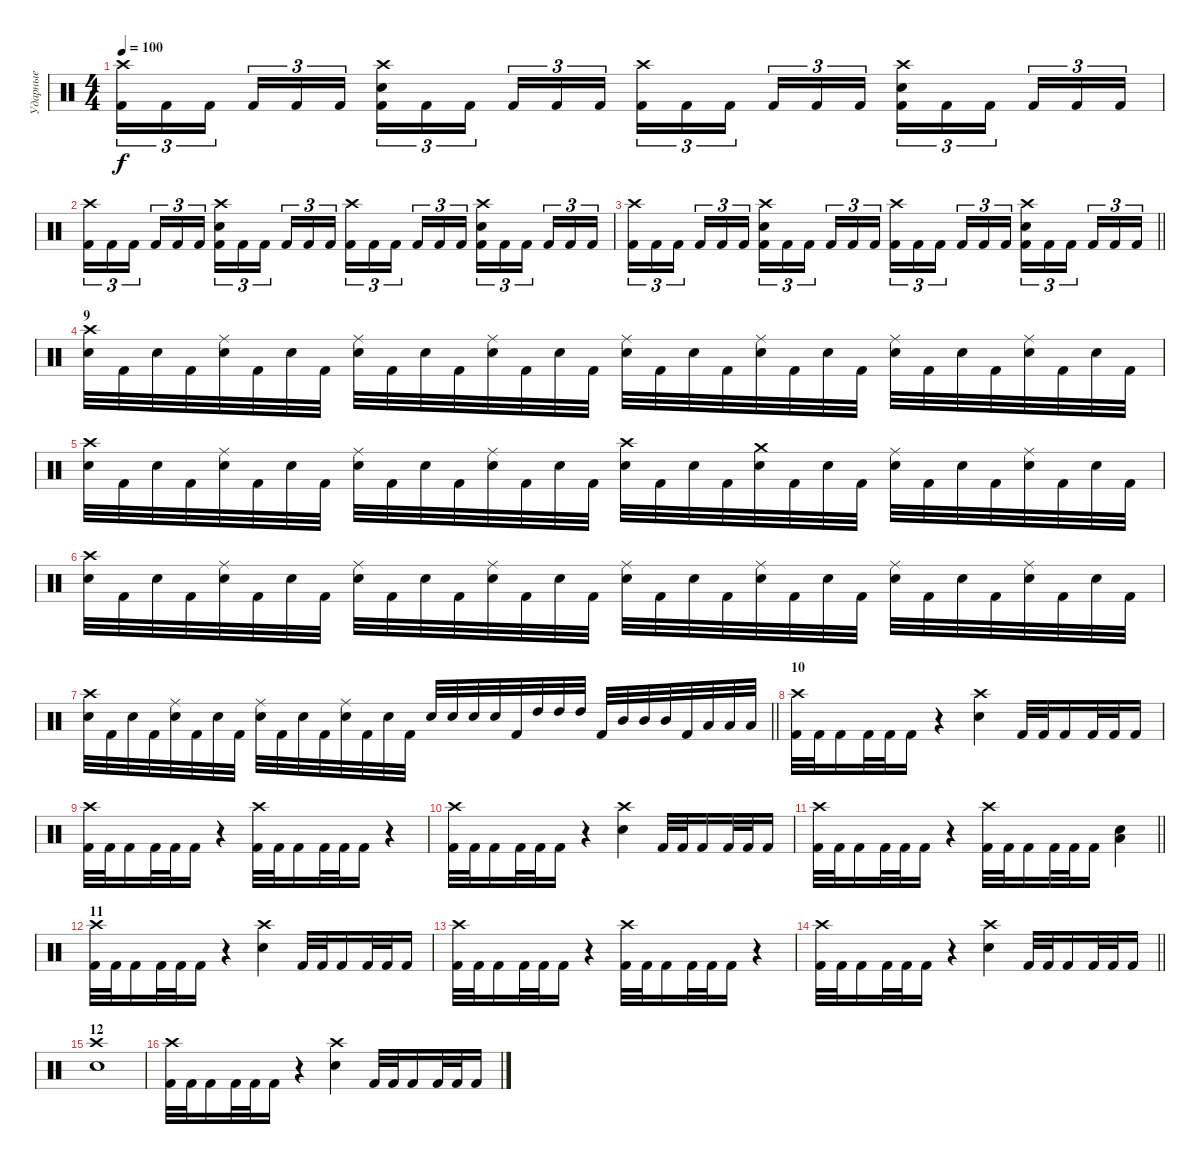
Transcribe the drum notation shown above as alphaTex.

\track ("Ударные" "Ударные") {instrument percussion}
\staff {score}
\articulation defaults
\ts (4 4)
\tempo 100
\clef neutral
\ks c
("Crash high (hit)" "Kick (hit) 2").16{tu (3 2) dy f} "Kick (hit) 2".16{tu (3 2)} "Kick (hit) 2".16{tu (3 2) beam splitsecondary} "Kick (hit) 2".16{tu (3 2)} "Kick (hit) 2".16{tu (3 2)} "Kick (hit) 2".16{tu (3 2)} ("Crash high (hit)" "Electric Snare (hit)" "Kick (hit) 2").16{tu (3 2)} "Kick (hit) 2".16{tu (3 2)} "Kick (hit) 2".16{tu (3 2) beam splitsecondary} "Kick (hit) 2".16{tu (3 2)} "Kick (hit) 2".16{tu (3 2)} "Kick (hit) 2".16{tu (3 2)} ("Crash high (hit)" "Kick (hit) 2").16{tu (3 2)} "Kick (hit) 2".16{tu (3 2)} "Kick (hit) 2".16{tu (3 2) beam splitsecondary} "Kick (hit) 2".16{tu (3 2)} "Kick (hit) 2".16{tu (3 2)} "Kick (hit) 2".16{tu (3 2)} ("Crash high (hit)" "Electric Snare (hit)" "Kick (hit) 2").16{tu (3 2)} "Kick (hit) 2".16{tu (3 2)} "Kick (hit) 2".16{tu (3 2) beam splitsecondary} "Kick (hit) 2".16{tu (3 2)} "Kick (hit) 2".16{tu (3 2)} "Kick (hit) 2".16{tu (3 2)} |
("Crash high (hit)" "Kick (hit) 2").16{tu (3 2)} "Kick (hit) 2".16{tu (3 2)} "Kick (hit) 2".16{tu (3 2) beam splitsecondary} "Kick (hit) 2".16{tu (3 2)} "Kick (hit) 2".16{tu (3 2)} "Kick (hit) 2".16{tu (3 2)} ("Crash high (hit)" "Electric Snare (hit)" "Kick (hit) 2").16{tu (3 2)} "Kick (hit) 2".16{tu (3 2)} "Kick (hit) 2".16{tu (3 2) beam splitsecondary} "Kick (hit) 2".16{tu (3 2)} "Kick (hit) 2".16{tu (3 2)} "Kick (hit) 2".16{tu (3 2)} ("Crash high (hit)" "Kick (hit) 2").16{tu (3 2)} "Kick (hit) 2".16{tu (3 2)} "Kick (hit) 2".16{tu (3 2) beam splitsecondary} "Kick (hit) 2".16{tu (3 2)} "Kick (hit) 2".16{tu (3 2)} "Kick (hit) 2".16{tu (3 2)} ("Crash high (hit)" "Electric Snare (hit)" "Kick (hit) 2").16{tu (3 2)} "Kick (hit) 2".16{tu (3 2)} "Kick (hit) 2".16{tu (3 2) beam splitsecondary} "Kick (hit) 2".16{tu (3 2)} "Kick (hit) 2".16{tu (3 2)} "Kick (hit) 2".16{tu (3 2)} |
\barLineRight lightlight
("Crash high (hit)" "Kick (hit) 2").16{tu (3 2)} "Kick (hit) 2".16{tu (3 2)} "Kick (hit) 2".16{tu (3 2) beam splitsecondary} "Kick (hit) 2".16{tu (3 2)} "Kick (hit) 2".16{tu (3 2)} "Kick (hit) 2".16{tu (3 2)} ("Crash high (hit)" "Electric Snare (hit)" "Kick (hit) 2").16{tu (3 2)} "Kick (hit) 2".16{tu (3 2)} "Kick (hit) 2".16{tu (3 2) beam splitsecondary} "Kick (hit) 2".16{tu (3 2)} "Kick (hit) 2".16{tu (3 2)} "Kick (hit) 2".16{tu (3 2)} ("Crash high (hit)" "Kick (hit) 2").16{tu (3 2)} "Kick (hit) 2".16{tu (3 2)} "Kick (hit) 2".16{tu (3 2) beam splitsecondary} "Kick (hit) 2".16{tu (3 2)} "Kick (hit) 2".16{tu (3 2)} "Kick (hit) 2".16{tu (3 2)} ("Crash high (hit)" "Electric Snare (hit)" "Kick (hit) 2").16{tu (3 2)} "Kick (hit) 2".16{tu (3 2)} "Kick (hit) 2".16{tu (3 2) beam splitsecondary} "Kick (hit) 2".16{tu (3 2)} "Kick (hit) 2".16{tu (3 2)} "Kick (hit) 2".16{tu (3 2)} |
\section ("" "9")
("Crash high (hit)" "Electric Snare (hit)").32 "Kick (hit) 2".32 "Electric Snare (hit)".32 "Kick (hit) 2".32 ("Ride (middle)" "Electric Snare (hit)").32 "Kick (hit) 2".32 "Electric Snare (hit)".32 "Kick (hit) 2".32 ("Ride (middle)" "Electric Snare (hit)").32 "Kick (hit) 2".32 "Electric Snare (hit)".32 "Kick (hit) 2".32 ("Ride (middle)" "Electric Snare (hit)").32 "Kick (hit) 2".32 "Electric Snare (hit)".32 "Kick (hit) 2".32 ("Ride (middle)" "Electric Snare (hit)").32 "Kick (hit) 2".32 "Electric Snare (hit)".32 "Kick (hit) 2".32 ("Ride (middle)" "Electric Snare (hit)").32 "Kick (hit) 2".32 "Electric Snare (hit)".32 "Kick (hit) 2".32 ("Ride (middle)" "Electric Snare (hit)").32 "Kick (hit) 2".32 "Electric Snare (hit)".32 "Kick (hit) 2".32 ("Ride (middle)" "Electric Snare (hit)").32 "Kick (hit) 2".32 "Electric Snare (hit)".32 "Kick (hit) 2".32 |
("Crash high (hit)" "Electric Snare (hit)").32 "Kick (hit) 2".32 "Electric Snare (hit)".32 "Kick (hit) 2".32 ("Ride (middle)" "Electric Snare (hit)").32 "Kick (hit) 2".32 "Electric Snare (hit)".32 "Kick (hit) 2".32 ("Ride (middle)" "Electric Snare (hit)").32 "Kick (hit) 2".32 "Electric Snare (hit)".32 "Kick (hit) 2".32 ("Ride (middle)" "Electric Snare (hit)").32 "Kick (hit) 2".32 "Electric Snare (hit)".32 "Kick (hit) 2".32 ("Crash high (hit)" "Electric Snare (hit)").32 "Kick (hit) 2".32 "Electric Snare (hit)".32 "Kick (hit) 2".32 ("Crash medium (hit)" "Electric Snare (hit)").32 "Kick (hit) 2".32 "Electric Snare (hit)".32 "Kick (hit) 2".32 ("Ride (middle)" "Electric Snare (hit)").32 "Kick (hit) 2".32 "Electric Snare (hit)".32 "Kick (hit) 2".32 ("Ride (middle)" "Electric Snare (hit)").32 "Kick (hit) 2".32 "Electric Snare (hit)".32 "Kick (hit) 2".32 |
("Crash high (hit)" "Electric Snare (hit)").32 "Kick (hit) 2".32 "Electric Snare (hit)".32 "Kick (hit) 2".32 ("Ride (middle)" "Electric Snare (hit)").32 "Kick (hit) 2".32 "Electric Snare (hit)".32 "Kick (hit) 2".32 ("Ride (middle)" "Electric Snare (hit)").32 "Kick (hit) 2".32 "Electric Snare (hit)".32 "Kick (hit) 2".32 ("Ride (middle)" "Electric Snare (hit)").32 "Kick (hit) 2".32 "Electric Snare (hit)".32 "Kick (hit) 2".32 ("Ride (middle)" "Electric Snare (hit)").32 "Kick (hit) 2".32 "Electric Snare (hit)".32 "Kick (hit) 2".32 ("Ride (middle)" "Electric Snare (hit)").32 "Kick (hit) 2".32 "Electric Snare (hit)".32 "Kick (hit) 2".32 ("Ride (middle)" "Electric Snare (hit)").32 "Kick (hit) 2".32 "Electric Snare (hit)".32 "Kick (hit) 2".32 ("Ride (middle)" "Electric Snare (hit)").32 "Kick (hit) 2".32 "Electric Snare (hit)".32 "Kick (hit) 2".32 |
\barLineRight lightlight
("Crash high (hit)" "Electric Snare (hit)").32 "Kick (hit) 2".32 "Electric Snare (hit)".32 "Kick (hit) 2".32 ("Ride (middle)" "Electric Snare (hit)").32 "Kick (hit) 2".32 "Electric Snare (hit)".32 "Kick (hit) 2".32 ("Ride (middle)" "Electric Snare (hit)").32 "Kick (hit) 2".32 "Electric Snare (hit)".32 "Kick (hit) 2".32 ("Ride (middle)" "Electric Snare (hit)").32 "Kick (hit) 2".32 "Electric Snare (hit)".32 "Kick (hit) 2".32 "Electric Snare (hit)".32 "Electric Snare (hit)".32 "Electric Snare (hit)".32 "Electric Snare (hit)".32 "Kick (hit) 2".32 "High Tom (hit)".32 "High Tom (hit)".32 "High Tom (hit)".32 "Kick (hit) 2".32 "Mid Tom (hit)".32 "Mid Tom (hit)".32 "Mid Tom (hit)".32 "Kick (hit) 2".32 "Low Tom (hit)".32 "Low Tom (hit)".32 "Low Tom (hit)".32 |
\section ("" "10")
("Crash high (hit)" "Kick (hit) 2").32 "Kick (hit) 2".32 "Kick (hit) 2".16 "Kick (hit) 2".32 "Kick (hit) 2".32 "Kick (hit) 2".16 r.4 ("Crash high (hit)" "Electric Snare (hit)").4 "Kick (hit) 2".32 "Kick (hit) 2".32 "Kick (hit) 2".16 "Kick (hit) 2".32 "Kick (hit) 2".32 "Kick (hit) 2".16 |
("Crash high (hit)" "Kick (hit) 2").32 "Kick (hit) 2".32 "Kick (hit) 2".16 "Kick (hit) 2".32 "Kick (hit) 2".32 "Kick (hit) 2".16 r.4 ("Crash high (hit)" "Kick (hit) 2").32 "Kick (hit) 2".32 "Kick (hit) 2".16 "Kick (hit) 2".32 "Kick (hit) 2".32 "Kick (hit) 2".16 r.4 |
("Crash high (hit)" "Kick (hit) 2").32 "Kick (hit) 2".32 "Kick (hit) 2".16 "Kick (hit) 2".32 "Kick (hit) 2".32 "Kick (hit) 2".16 r.4 ("Crash high (hit)" "Electric Snare (hit)").4 "Kick (hit) 2".32 "Kick (hit) 2".32 "Kick (hit) 2".16 "Kick (hit) 2".32 "Kick (hit) 2".32 "Kick (hit) 2".16 |
\barLineRight lightlight
("Crash high (hit)" "Kick (hit) 2").32 "Kick (hit) 2".32 "Kick (hit) 2".16 "Kick (hit) 2".32 "Kick (hit) 2".32 "Kick (hit) 2".16 r.4 ("Crash high (hit)" "Kick (hit) 2").32 "Kick (hit) 2".32 "Kick (hit) 2".16 "Kick (hit) 2".32 "Kick (hit) 2".32 "Kick (hit) 2".16 ("Electric Snare (hit)" "Low Tom (hit)").4 |
\section ("" "11")
("Crash high (hit)" "Kick (hit) 2").32 "Kick (hit) 2".32 "Kick (hit) 2".16 "Kick (hit) 2".32 "Kick (hit) 2".32 "Kick (hit) 2".16 r.4 ("Crash high (hit)" "Electric Snare (hit)").4 "Kick (hit) 2".32 "Kick (hit) 2".32 "Kick (hit) 2".16 "Kick (hit) 2".32 "Kick (hit) 2".32 "Kick (hit) 2".16 |
("Crash high (hit)" "Kick (hit) 2").32 "Kick (hit) 2".32 "Kick (hit) 2".16 "Kick (hit) 2".32 "Kick (hit) 2".32 "Kick (hit) 2".16 r.4 ("Crash high (hit)" "Kick (hit) 2").32 "Kick (hit) 2".32 "Kick (hit) 2".16 "Kick (hit) 2".32 "Kick (hit) 2".32 "Kick (hit) 2".16 r.4 |
\barLineRight lightlight
("Crash high (hit)" "Kick (hit) 2").32 "Kick (hit) 2".32 "Kick (hit) 2".16 "Kick (hit) 2".32 "Kick (hit) 2".32 "Kick (hit) 2".16 r.4 ("Crash high (hit)" "Electric Snare (hit)").4 "Kick (hit) 2".32 "Kick (hit) 2".32 "Kick (hit) 2".16 "Kick (hit) 2".32 "Kick (hit) 2".32 "Kick (hit) 2".16 |
\section ("" "12")
("Crash high (hit)" "Electric Snare (hit)").1 |
("Crash high (hit)" "Kick (hit) 2").32 "Kick (hit) 2".32 "Kick (hit) 2".16 "Kick (hit) 2".32 "Kick (hit) 2".32 "Kick (hit) 2".16 r.4 ("Crash high (hit)" "Electric Snare (hit)").4 "Kick (hit) 2".32 "Kick (hit) 2".32 "Kick (hit) 2".16 "Kick (hit) 2".32 "Kick (hit) 2".32 "Kick (hit) 2".16
